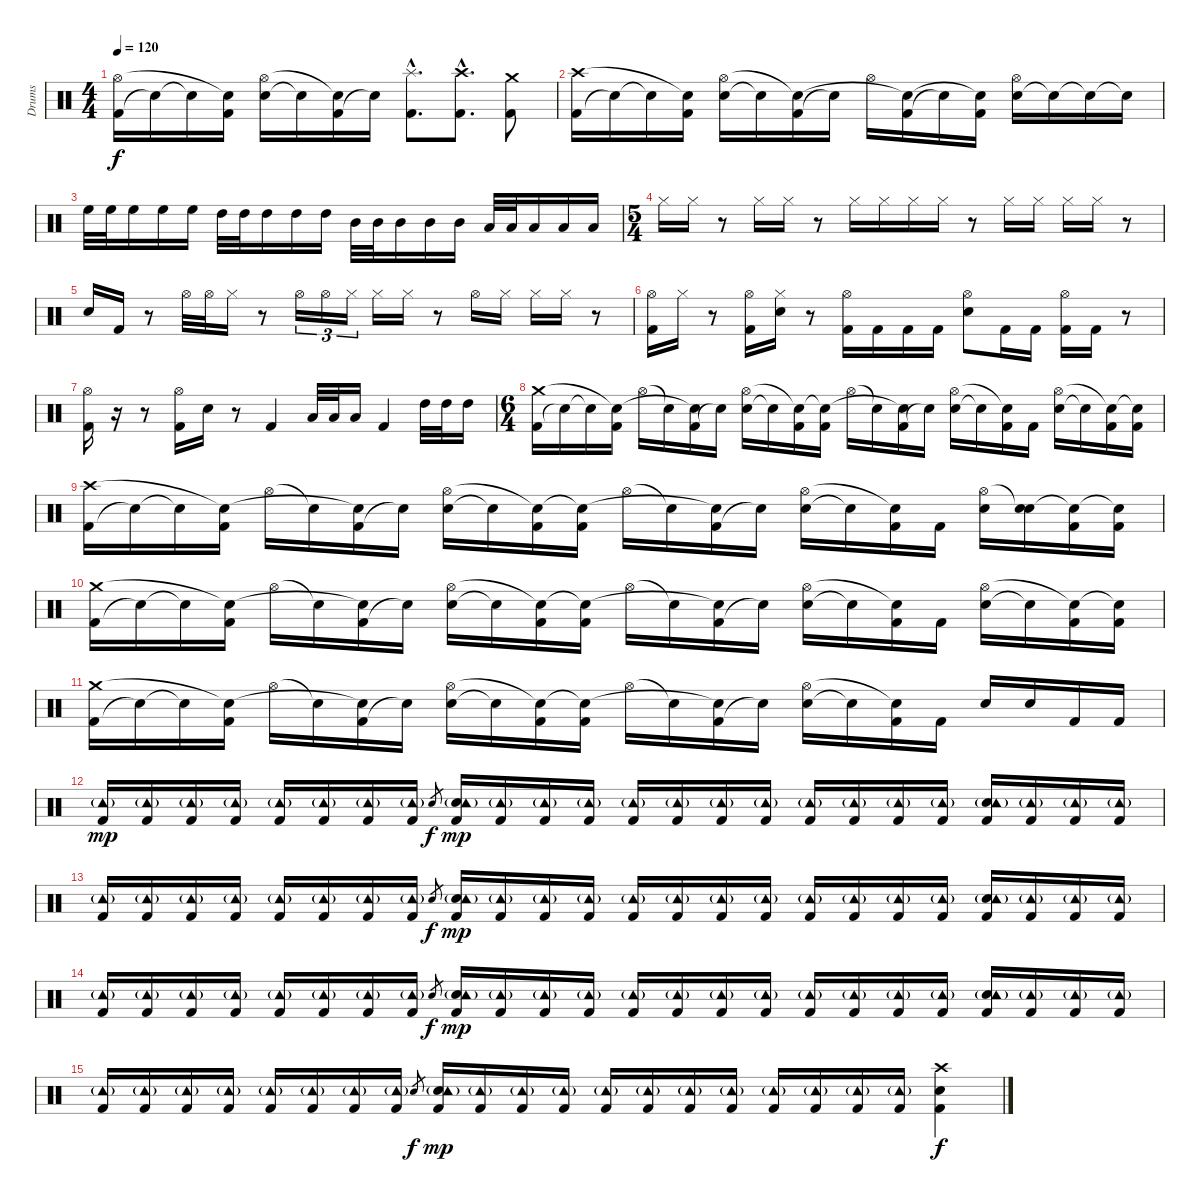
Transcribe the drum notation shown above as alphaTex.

\track ("Drums" "Drums") {instrument percussion}
\staff {score}
\articulation defaults
\ts (4 4)
\tempo 120
\clef neutral
\ks c
("Kick (hit) 2" "Hi-Hat (open)").16{dy f} "Snare (hit)"{t}.16 "Snare (hit)"{t}.16 ("Kick (hit) 2" "Snare (hit)"{t}).16 ("Snare (hit) 2" "Hi-Hat (open)").16 "Snare (hit)"{t}.16 ("Kick (hit) 2" "Snare (hit)"{t}).16 "Snare (hit)"{t}.16 ("Kick (hit) 2"{hac} "Splash (hit)"{hac}).8{d} ("Kick (hit) 2"{hac} "Crash high (hit)"{hac}).8{d} ("Kick (hit) 2" "Crash medium (hit)").8 |
("Kick (hit) 2" "Crash high (hit)").16 "Snare (hit)"{t}.16 "Snare (hit)"{t}.16 ("Kick (hit) 2" "Snare (hit)"{t}).16 ("Snare (hit) 2" "Hi-Hat (open)").16 "Snare (hit)"{t}.16 ("Kick (hit) 2" "Snare (hit)"{t}).16 "Snare (hit)"{t}.16 "Hi-Hat (open)".16 ("Kick (hit) 2" "Snare (hit)"{t}).16 "Snare (hit)"{t}.16 ("Kick (hit) 2" "Snare (hit)"{t}).16 ("Snare (hit) 2" "Hi-Hat (open)").16 "Snare (hit)"{t}.16 "Snare (hit)"{t}.16 "Snare (hit)"{t}.16 |
"High Floor Tom (hit)".32 "High Floor Tom (hit)".32 "High Floor Tom (hit)".16 "High Floor Tom (hit)".16 "High Floor Tom (hit)".16 "High Tom (hit)".32 "High Tom (hit)".32 "High Tom (hit)".16 "High Tom (hit)".16 "High Tom (hit)".16 "Mid Tom (hit)".32 "Mid Tom (hit)".32 "Mid Tom (hit)".16 "Mid Tom (hit)".16 "Mid Tom (hit)".16 "Low Tom (hit)".32 "Low Tom (hit)".32 "Low Tom (hit)".16 "Low Tom (hit)".16 "Low Tom (hit)".16 |
\ts (5 4)
"Hi-Hat (closed)".16 "Hi-Hat (closed)".16 r.8 "Hi-Hat (closed)".16 "Hi-Hat (closed)".16 r.8 "Hi-Hat (closed)".16 "Hi-Hat (closed)".16 "Hi-Hat (closed)".16 "Hi-Hat (closed)".16 r.8 "Hi-Hat (closed)".16 "Hi-Hat (closed)".16 "Hi-Hat (closed)".16 "Hi-Hat (closed)".16 r.8 |
"Snare (hit) 2".16 "Kick (hit) 2".16 r.8 "Hi-Hat (open)".32 "Hi-Hat (open)".32 "Hi-Hat (closed)".16 r.8 "Hi-Hat (open)".16{tu (3 2)} "Hi-Hat (open)".16{tu (3 2)} "Hi-Hat (closed)".16{tu (3 2)} "Hi-Hat (closed)".16 "Hi-Hat (closed)".16 r.8 "Hi-Hat (open)".16 "Hi-Hat (closed)".16 "Hi-Hat (closed)".16 "Hi-Hat (closed)".16 r.8 |
("Kick (hit) 2" "Hi-Hat (open)").16 "Hi-Hat (closed)".16 r.8 ("Kick (hit) 2" "Hi-Hat (open)").16 ("Snare (hit) 2" "Hi-Hat (closed)").16 r.8 ("Kick (hit) 2" "Hi-Hat (open)").16 "Kick (hit) 2".16 "Kick (hit) 2".16 "Kick (hit) 2".16 ("Snare (hit) 2" "Hi-Hat (open)").8 "Kick (hit) 2".16 "Kick (hit) 2".16 ("Kick (hit) 2" "Hi-Hat (open)").16 "Kick (hit) 2".16 r.8 |
("Kick (hit) 2" "Hi-Hat (open)").16 r.16 r.8 ("Kick (hit) 2" "Hi-Hat (open)").16 "Snare (hit) 2".16 r.8 "Kick (hit) 2".4 "Low Tom (hit)".32 "Low Tom (hit)".32 "Low Tom (hit)".16 "Kick (hit) 2".4 "High Tom (hit)".32 "High Tom (hit)".32 "High Tom (hit)".16 |
\ts (6 4)
("Kick (hit) 2" "Crash medium (hit)").16 "Snare (hit)"{t}.16 "Snare (hit)"{t}.16 ("Kick (hit) 2" "Snare (hit)"{t}).16 "Hi-Hat (open)".16 "Snare (hit)"{t}.16 ("Kick (hit) 2" "Snare (hit)"{t}).16 "Snare (hit)"{t}.16 ("Snare (hit) 2" "Hi-Hat (open)").16 "Snare (hit)"{t}.16 ("Kick (hit) 2" "Snare (hit)"{t}).16 ("Kick (hit) 2" "Snare (hit)"{t}).16 "Hi-Hat (open)".16 "Snare (hit)"{t}.16 ("Kick (hit) 2" "Snare (hit)"{t}).16 "Snare (hit)"{t}.16 ("Snare (hit) 2" "Hi-Hat (open)").16 "Snare (hit)"{t}.16 ("Kick (hit) 2" "Snare (hit)"{t}).16 "Kick (hit) 2".16 ("Snare (hit) 2" "Hi-Hat (open)").16 "Snare (hit)"{t}.16 ("Kick (hit) 2" "Snare (hit)"{t}).16 ("Kick (hit) 2" "Snare (hit)"{t}).16 |
("Kick (hit) 2" "Crash high (hit)").16 "Snare (hit)"{t}.16 "Snare (hit)"{t}.16 ("Kick (hit) 2" "Snare (hit)"{t}).16 "Hi-Hat (open)".16 "Snare (hit)"{t}.16 ("Kick (hit) 2" "Snare (hit)"{t}).16 "Snare (hit)"{t}.16 ("Snare (hit) 2" "Hi-Hat (open)").16 "Snare (hit)"{t}.16 ("Kick (hit) 2" "Snare (hit)"{t}).16 ("Kick (hit) 2" "Snare (hit)"{t}).16 "Hi-Hat (open)".16 "Snare (hit)"{t}.16 ("Kick (hit) 2" "Snare (hit)"{t}).16 "Snare (hit)"{t}.16 ("Snare (hit) 2" "Hi-Hat (open)").16 "Snare (hit)"{t}.16 ("Kick (hit) 2" "Snare (hit)"{t}).16 "Kick (hit) 2".16 ("Snare (hit) 2" "Hi-Hat (open)").16 ("Snare (hit) 2" "Snare (hit)"{t}).16 ("Kick (hit) 2" "Snare (hit)"{t}).16 ("Kick (hit) 2" "Snare (hit)"{t}).16 |
("Kick (hit) 2" "Crash medium (hit)").16 "Snare (hit)"{t}.16 "Snare (hit)"{t}.16 ("Kick (hit) 2" "Snare (hit)"{t}).16 "Hi-Hat (open)".16 "Snare (hit)"{t}.16 ("Kick (hit) 2" "Snare (hit)"{t}).16 "Snare (hit)"{t}.16 ("Snare (hit) 2" "Hi-Hat (open)").16 "Snare (hit)"{t}.16 ("Kick (hit) 2" "Snare (hit)"{t}).16 ("Kick (hit) 2" "Snare (hit)"{t}).16 "Hi-Hat (open)".16 "Snare (hit)"{t}.16 ("Kick (hit) 2" "Snare (hit)"{t}).16 "Snare (hit)"{t}.16 ("Snare (hit) 2" "Hi-Hat (open)").16 "Snare (hit)"{t}.16 ("Kick (hit) 2" "Snare (hit)"{t}).16 "Kick (hit) 2".16 ("Snare (hit) 2" "Hi-Hat (open)").16 "Snare (hit)"{t}.16 ("Kick (hit) 2" "Snare (hit)"{t}).16 ("Kick (hit) 2" "Snare (hit)"{t}).16 |
("Kick (hit) 2" "Crash medium (hit)").16 "Snare (hit)"{t}.16 "Snare (hit)"{t}.16 ("Kick (hit) 2" "Snare (hit)"{t}).16 "Hi-Hat (open)".16 "Snare (hit)"{t}.16 ("Kick (hit) 2" "Snare (hit)"{t}).16 "Snare (hit)"{t}.16 ("Snare (hit) 2" "Hi-Hat (open)").16 "Snare (hit)"{t}.16 ("Kick (hit) 2" "Snare (hit)"{t}).16 ("Kick (hit) 2" "Snare (hit)"{t}).16 "Hi-Hat (open)".16 "Snare (hit)"{t}.16 ("Kick (hit) 2" "Snare (hit)"{t}).16 "Snare (hit)"{t}.16 ("Snare (hit) 2" "Hi-Hat (open)").16 "Snare (hit)"{t}.16 ("Kick (hit) 2" "Snare (hit)"{t}).16 "Kick (hit) 2".16 "Snare (hit) 2".16 "Snare (hit) 2".16 "Kick (hit) 2".16 "Kick (hit) 2".16 |
("Kick (hit) 2" "Tambourine (hit)"{g}).16{dy mp} ("Kick (hit) 2" "Tambourine (hit)"{g}).16 ("Kick (hit) 2" "Tambourine (hit)"{g}).16 ("Kick (hit) 2" "Tambourine (hit)"{g}).16 ("Kick (hit) 2" "Tambourine (hit)"{g}).16 ("Kick (hit) 2" "Tambourine (hit)"{g}).16 ("Kick (hit) 2" "Tambourine (hit)"{g}).16 ("Kick (hit) 2" "Tambourine (hit)"{g}).16 "Snare (hit) 2".8{gr dy f} ("Kick (hit) 2" "Snare (hit) 2" "Tambourine (hit)"{g}).16{dy mp} ("Kick (hit) 2" "Tambourine (hit)"{g}).16 ("Kick (hit) 2" "Tambourine (hit)"{g}).16 ("Kick (hit) 2" "Tambourine (hit)"{g}).16 ("Kick (hit) 2" "Tambourine (hit)"{g}).16 ("Kick (hit) 2" "Tambourine (hit)"{g}).16 ("Kick (hit) 2" "Tambourine (hit)"{g}).16 ("Kick (hit) 2" "Tambourine (hit)"{g}).16 ("Kick (hit) 2" "Tambourine (hit)"{g}).16 ("Kick (hit) 2" "Tambourine (hit)"{g}).16 ("Kick (hit) 2" "Tambourine (hit)"{g}).16 ("Kick (hit) 2" "Tambourine (hit)"{g}).16 ("Kick (hit) 2" "Snare (hit) 2" "Tambourine (hit)"{g}).16 ("Kick (hit) 2" "Tambourine (hit)"{g}).16 ("Kick (hit) 2" "Tambourine (hit)"{g}).16 ("Kick (hit) 2" "Tambourine (hit)"{g}).16 |
("Kick (hit) 2" "Tambourine (hit)"{g}).16 ("Kick (hit) 2" "Tambourine (hit)"{g}).16 ("Kick (hit) 2" "Tambourine (hit)"{g}).16 ("Kick (hit) 2" "Tambourine (hit)"{g}).16 ("Kick (hit) 2" "Tambourine (hit)"{g}).16 ("Kick (hit) 2" "Tambourine (hit)"{g}).16 ("Kick (hit) 2" "Tambourine (hit)"{g}).16 ("Kick (hit) 2" "Tambourine (hit)"{g}).16 "Snare (hit) 2".8{gr dy f} ("Kick (hit) 2" "Snare (hit) 2" "Tambourine (hit)"{g}).16{dy mp} ("Kick (hit) 2" "Tambourine (hit)"{g}).16 ("Kick (hit) 2" "Tambourine (hit)"{g}).16 ("Kick (hit) 2" "Tambourine (hit)"{g}).16 ("Kick (hit) 2" "Tambourine (hit)"{g}).16 ("Kick (hit) 2" "Tambourine (hit)"{g}).16 ("Kick (hit) 2" "Tambourine (hit)"{g}).16 ("Kick (hit) 2" "Tambourine (hit)"{g}).16 ("Kick (hit) 2" "Tambourine (hit)"{g}).16 ("Kick (hit) 2" "Tambourine (hit)"{g}).16 ("Kick (hit) 2" "Tambourine (hit)"{g}).16 ("Kick (hit) 2" "Tambourine (hit)"{g}).16 ("Kick (hit) 2" "Snare (hit) 2" "Tambourine (hit)"{g}).16 ("Kick (hit) 2" "Tambourine (hit)"{g}).16 ("Kick (hit) 2" "Tambourine (hit)"{g}).16 ("Kick (hit) 2" "Tambourine (hit)"{g}).16 |
("Kick (hit) 2" "Tambourine (hit)"{g}).16 ("Kick (hit) 2" "Tambourine (hit)"{g}).16 ("Kick (hit) 2" "Tambourine (hit)"{g}).16 ("Kick (hit) 2" "Tambourine (hit)"{g}).16 ("Kick (hit) 2" "Tambourine (hit)"{g}).16 ("Kick (hit) 2" "Tambourine (hit)"{g}).16 ("Kick (hit) 2" "Tambourine (hit)"{g}).16 ("Kick (hit) 2" "Tambourine (hit)"{g}).16 "Snare (hit) 2".8{gr dy f} ("Kick (hit) 2" "Snare (hit) 2" "Tambourine (hit)"{g}).16{dy mp} ("Kick (hit) 2" "Tambourine (hit)"{g}).16 ("Kick (hit) 2" "Tambourine (hit)"{g}).16 ("Kick (hit) 2" "Tambourine (hit)"{g}).16 ("Kick (hit) 2" "Tambourine (hit)"{g}).16 ("Kick (hit) 2" "Tambourine (hit)"{g}).16 ("Kick (hit) 2" "Tambourine (hit)"{g}).16 ("Kick (hit) 2" "Tambourine (hit)"{g}).16 ("Kick (hit) 2" "Tambourine (hit)"{g}).16 ("Kick (hit) 2" "Tambourine (hit)"{g}).16 ("Kick (hit) 2" "Tambourine (hit)"{g}).16 ("Kick (hit) 2" "Tambourine (hit)"{g}).16 ("Kick (hit) 2" "Snare (hit) 2" "Tambourine (hit)"{g}).16 ("Kick (hit) 2" "Tambourine (hit)"{g}).16 ("Kick (hit) 2" "Tambourine (hit)"{g}).16 ("Kick (hit) 2" "Tambourine (hit)"{g}).16 |
("Kick (hit) 2" "Tambourine (hit)"{g}).16 ("Kick (hit) 2" "Tambourine (hit)"{g}).16 ("Kick (hit) 2" "Tambourine (hit)"{g}).16 ("Kick (hit) 2" "Tambourine (hit)"{g}).16 ("Kick (hit) 2" "Tambourine (hit)"{g}).16 ("Kick (hit) 2" "Tambourine (hit)"{g}).16 ("Kick (hit) 2" "Tambourine (hit)"{g}).16 ("Kick (hit) 2" "Tambourine (hit)"{g}).16 "Snare (hit) 2".8{gr dy f} ("Kick (hit) 2" "Snare (hit) 2" "Tambourine (hit)"{g}).16{dy mp} ("Kick (hit) 2" "Tambourine (hit)"{g}).16 ("Kick (hit) 2" "Tambourine (hit)"{g}).16 ("Kick (hit) 2" "Tambourine (hit)"{g}).16 ("Kick (hit) 2" "Tambourine (hit)"{g}).16 ("Kick (hit) 2" "Tambourine (hit)"{g}).16 ("Kick (hit) 2" "Tambourine (hit)"{g}).16 ("Kick (hit) 2" "Tambourine (hit)"{g}).16 ("Kick (hit) 2" "Tambourine (hit)"{g}).16 ("Kick (hit) 2" "Tambourine (hit)"{g}).16 ("Kick (hit) 2" "Tambourine (hit)"{g}).16 ("Kick (hit) 2" "Tambourine (hit)"{g}).16 ("Kick (hit) 2" "Snare (hit) 2" "Crash high (hit)").4{dy f}
